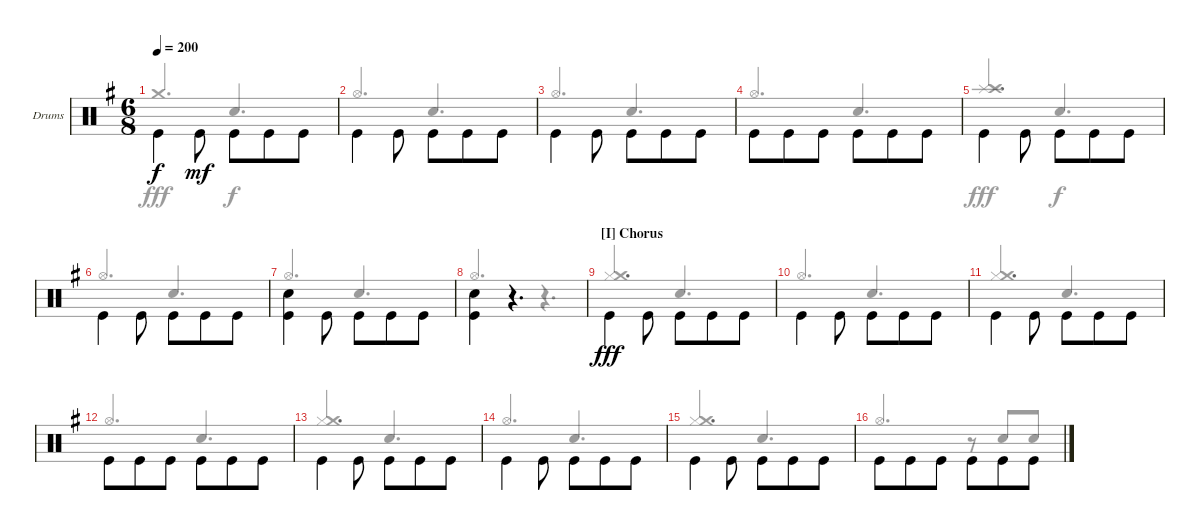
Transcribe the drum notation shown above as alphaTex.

\bracketExtendMode groupsimilarinstruments
\firstSystemTrackNameOrientation horizontal
\otherSystemsTrackNameOrientation horizontal
\track ("Drumkit" "Drums") {instrument percussion}
\staff {score}
\articulation defaults
\voice
\ts (6 8)
\tempo 200
\clef neutral
\ks eminor "Kick (hit)".4{dy f beam invert} "Kick (hit)".8{dy mf beam invert} "Kick (hit)".8{beam invert} "Kick (hit)".8 "Kick (hit)".8
|
"Kick (hit)".4{beam invert} "Kick (hit)".8{beam invert} "Kick (hit)".8 "Kick (hit)".8{beam invert} "Kick (hit)".8 |
"Kick (hit)".4{beam invert} "Kick (hit)".8{beam invert} "Kick (hit)".8 "Kick (hit)".8{beam invert} "Kick (hit)".8 |
"Kick (hit)".8{beam invert} "Kick (hit)".8{beam invert} "Kick (hit)".8{beam invert} "Kick (hit)".8 "Kick (hit)".8 "Kick (hit)".8{beam invert} |
"Kick (hit)".4{beam invert} "Kick (hit)".8{beam invert} "Kick (hit)".8{beam invert} "Kick (hit)".8 "Kick (hit)".8 |
"Kick (hit)".4{beam invert} "Kick (hit)".8{beam invert} "Kick (hit)".8 "Kick (hit)".8{beam invert} "Kick (hit)".8 |
("Kick (hit)" "Snare (hit) 2").4{beam invert} "Kick (hit)".8{beam invert} "Kick (hit)".8 "Kick (hit)".8{beam invert} "Kick (hit)".8 |
("Kick (hit)" "Snare (hit) 2").4{beam invert} r.4{d} |
\section ("I" "Chorus")
"Kick (hit)".4{dy fff beam invert} "Kick (hit)".8{beam invert} "Kick (hit)".8{beam invert} "Kick (hit)".8 "Kick (hit)".8 |
"Kick (hit)".4{beam invert} "Kick (hit)".8{beam invert} "Kick (hit)".8 "Kick (hit)".8{beam invert} "Kick (hit)".8 |
"Kick (hit)".4{beam invert} "Kick (hit)".8{beam invert} "Kick (hit)".8{beam invert} "Kick (hit)".8 "Kick (hit)".8 |
"Kick (hit)".8{beam invert} "Kick (hit)".8{beam invert} "Kick (hit)".8{beam invert} "Kick (hit)".8 "Kick (hit)".8 "Kick (hit)".8{beam invert} |
"Kick (hit)".4{beam invert} "Kick (hit)".8{beam invert} "Kick (hit)".8{beam invert} "Kick (hit)".8 "Kick (hit)".8 |
"Kick (hit)".4{beam invert} "Kick (hit)".8{beam invert} "Kick (hit)".8 "Kick (hit)".8{beam invert} "Kick (hit)".8 |
"Kick (hit)".4{beam invert} "Kick (hit)".8{beam invert} "Kick (hit)".8{beam invert} "Kick (hit)".8 "Kick (hit)".8 |
"Kick (hit)".8{beam invert} "Kick (hit)".8{beam invert} "Kick (hit)".8{beam invert} "Kick (hit)".8 "Kick (hit)".8 "Kick (hit)".8{beam invert}
\voice
\clef neutral
\ottava regular
\simile none
\ks eminor "Crash medium (hit)".4{d dy fff beam invert} "Snare (hit) 2".4{d dy f beam invert}
|
"Hi-Hat (open)".4{d beam invert} "Snare (hit) 2".4{d beam invert} |
"Hi-Hat (open)".4{d beam invert} "Snare (hit) 2".4{d beam invert} |
"Hi-Hat (open)".4{d beam invert} "Snare (hit) 2".4{d beam invert} |
("Splash (hit)" "Crash high (hit)").4{d dy fff beam invert} "Snare (hit) 2".4{d dy f beam invert} |
"Hi-Hat (open)".4{d beam invert} "Snare (hit) 2".4{d beam invert} |
"Hi-Hat (open)".4{d beam invert} "Snare (hit) 2".4{d beam invert} |
"Hi-Hat (open)".4{d beam invert} r.4{d} |
("Hi-Hat (closed)" "Crash medium (hit)").4{d dy fff beam invert} "Snare (hit) 2".4{d beam invert} |
"Hi-Hat (open)".4{d beam invert} "Snare (hit) 2".4{d beam invert} |
("Hi-Hat (closed)" "Crash medium (hit)").4{d beam invert} "Snare (hit) 2".4{d beam invert} |
"Hi-Hat (open)".4{d beam invert} "Snare (hit) 2".4{d beam invert} |
("Hi-Hat (closed)" "Crash medium (hit)").4{d beam invert} "Snare (hit) 2".4{d beam invert} |
"Hi-Hat (open)".4{d beam invert} "Snare (hit) 2".4{d beam invert} |
("Hi-Hat (closed)" "Crash medium (hit)").4{d beam invert} "Snare (hit) 2".4{d beam invert} |
"Hi-Hat (open)".4{d beam invert} r.8 "Snare (hit) 2".8{beam invert} "Snare (hit) 2".8
